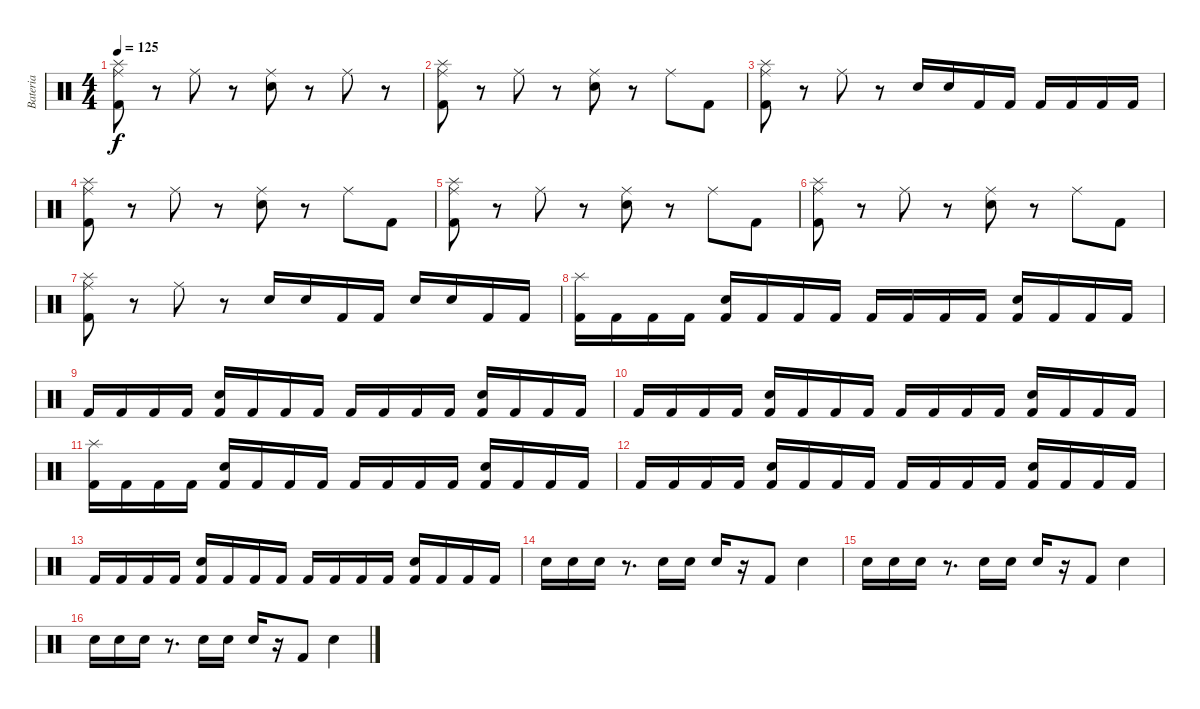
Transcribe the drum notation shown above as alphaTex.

\track ("Bateria" "Bateria") {instrument percussion}
\staff {score}
\articulation defaults
\ts (4 4)
\tempo 125
\clef neutral
\ks c
("Ride (middle)" "Kick (hit) 2" "Splash (hit)").8{dy f} r.8 "Ride (middle)".8 r.8 ("Ride (middle)" "Electric Snare (hit)").8 r.8 "Ride (middle)".8 r.8 |
("Ride (middle)" "Kick (hit) 2" "Splash (hit)").8 r.8 "Ride (middle)".8 r.8 ("Ride (middle)" "Electric Snare (hit)").8 r.8 "Ride (middle)".8 "Kick (hit) 2".8 |
("Ride (middle)" "Kick (hit) 2" "Splash (hit)").8 r.8 "Ride (middle)".8 r.8 "Electric Snare (hit)".16 "Electric Snare (hit)".16 "Kick (hit) 2".16 "Kick (hit) 2".16 "Kick (hit) 2".16 "Kick (hit) 2".16 "Kick (hit) 2".16 "Kick (hit) 2".16 |
("Ride (middle)" "Kick (hit) 2" "Splash (hit)").8 r.8 "Ride (middle)".8 r.8 ("Ride (middle)" "Electric Snare (hit)").8 r.8 "Ride (middle)".8 "Kick (hit) 2".8 |
("Ride (middle)" "Kick (hit) 2" "Splash (hit)").8 r.8 "Ride (middle)".8 r.8 ("Ride (middle)" "Electric Snare (hit)").8 r.8 "Ride (middle)".8 "Kick (hit) 2".8 |
("Ride (middle)" "Kick (hit) 2" "Splash (hit)").8 r.8 "Ride (middle)".8 r.8 ("Ride (middle)" "Electric Snare (hit)").8 r.8 "Ride (middle)".8 "Kick (hit) 2".8 |
("Ride (middle)" "Kick (hit) 2" "Splash (hit)").8 r.8 "Ride (middle)".8 r.8 "Electric Snare (hit)".16 "Electric Snare (hit)".16 "Kick (hit) 2".16 "Kick (hit) 2".16 "Electric Snare (hit)".16 "Electric Snare (hit)".16 "Kick (hit) 2".16 "Kick (hit) 2".16 |
("Kick (hit) 2" "Splash (hit)").16 "Kick (hit) 2".16 "Kick (hit) 2".16 "Kick (hit) 2".16 ("Kick (hit) 2" "Electric Snare (hit)").16 "Kick (hit) 2".16 "Kick (hit) 2".16 "Kick (hit) 2".16 "Kick (hit) 2".16 "Kick (hit) 2".16 "Kick (hit) 2".16 "Kick (hit) 2".16 ("Kick (hit) 2" "Electric Snare (hit)").16 "Kick (hit) 2".16 "Kick (hit) 2".16 "Kick (hit) 2".16 |
"Kick (hit) 2".16 "Kick (hit) 2".16 "Kick (hit) 2".16 "Kick (hit) 2".16 ("Kick (hit) 2" "Electric Snare (hit)").16 "Kick (hit) 2".16 "Kick (hit) 2".16 "Kick (hit) 2".16 "Kick (hit) 2".16 "Kick (hit) 2".16 "Kick (hit) 2".16 "Kick (hit) 2".16 ("Kick (hit) 2" "Electric Snare (hit)").16 "Kick (hit) 2".16 "Kick (hit) 2".16 "Kick (hit) 2".16 |
"Kick (hit) 2".16 "Kick (hit) 2".16 "Kick (hit) 2".16 "Kick (hit) 2".16 ("Kick (hit) 2" "Electric Snare (hit)").16 "Kick (hit) 2".16 "Kick (hit) 2".16 "Kick (hit) 2".16 "Kick (hit) 2".16 "Kick (hit) 2".16 "Kick (hit) 2".16 "Kick (hit) 2".16 ("Kick (hit) 2" "Electric Snare (hit)").16 "Kick (hit) 2".16 "Kick (hit) 2".16 "Kick (hit) 2".16 |
("Kick (hit) 2" "Splash (hit)").16 "Kick (hit) 2".16 "Kick (hit) 2".16 "Kick (hit) 2".16 ("Kick (hit) 2" "Electric Snare (hit)").16 "Kick (hit) 2".16 "Kick (hit) 2".16 "Kick (hit) 2".16 "Kick (hit) 2".16 "Kick (hit) 2".16 "Kick (hit) 2".16 "Kick (hit) 2".16 ("Kick (hit) 2" "Electric Snare (hit)").16 "Kick (hit) 2".16 "Kick (hit) 2".16 "Kick (hit) 2".16 |
"Kick (hit) 2".16 "Kick (hit) 2".16 "Kick (hit) 2".16 "Kick (hit) 2".16 ("Kick (hit) 2" "Electric Snare (hit)").16 "Kick (hit) 2".16 "Kick (hit) 2".16 "Kick (hit) 2".16 "Kick (hit) 2".16 "Kick (hit) 2".16 "Kick (hit) 2".16 "Kick (hit) 2".16 ("Kick (hit) 2" "Electric Snare (hit)").16 "Kick (hit) 2".16 "Kick (hit) 2".16 "Kick (hit) 2".16 |
"Kick (hit) 2".16 "Kick (hit) 2".16 "Kick (hit) 2".16 "Kick (hit) 2".16 ("Kick (hit) 2" "Electric Snare (hit)").16 "Kick (hit) 2".16 "Kick (hit) 2".16 "Kick (hit) 2".16 "Kick (hit) 2".16 "Kick (hit) 2".16 "Kick (hit) 2".16 "Kick (hit) 2".16 ("Kick (hit) 2" "Electric Snare (hit)").16 "Kick (hit) 2".16 "Kick (hit) 2".16 "Kick (hit) 2".16 |
"Electric Snare (hit)".16 "Electric Snare (hit)".16 "Electric Snare (hit)".16 r.8{d} "Electric Snare (hit)".16 "Electric Snare (hit)".16 "Electric Snare (hit)".16 r.16 "Kick (hit) 2".8 "Electric Snare (hit)".4 |
"Electric Snare (hit)".16 "Electric Snare (hit)".16 "Electric Snare (hit)".16 r.8{d} "Electric Snare (hit)".16 "Electric Snare (hit)".16 "Electric Snare (hit)".16 r.16 "Kick (hit) 2".8 "Electric Snare (hit)".4 |
"Electric Snare (hit)".16 "Electric Snare (hit)".16 "Electric Snare (hit)".16 r.8{d} "Electric Snare (hit)".16 "Electric Snare (hit)".16 "Electric Snare (hit)".16 r.16 "Kick (hit) 2".8 "Electric Snare (hit)".4
